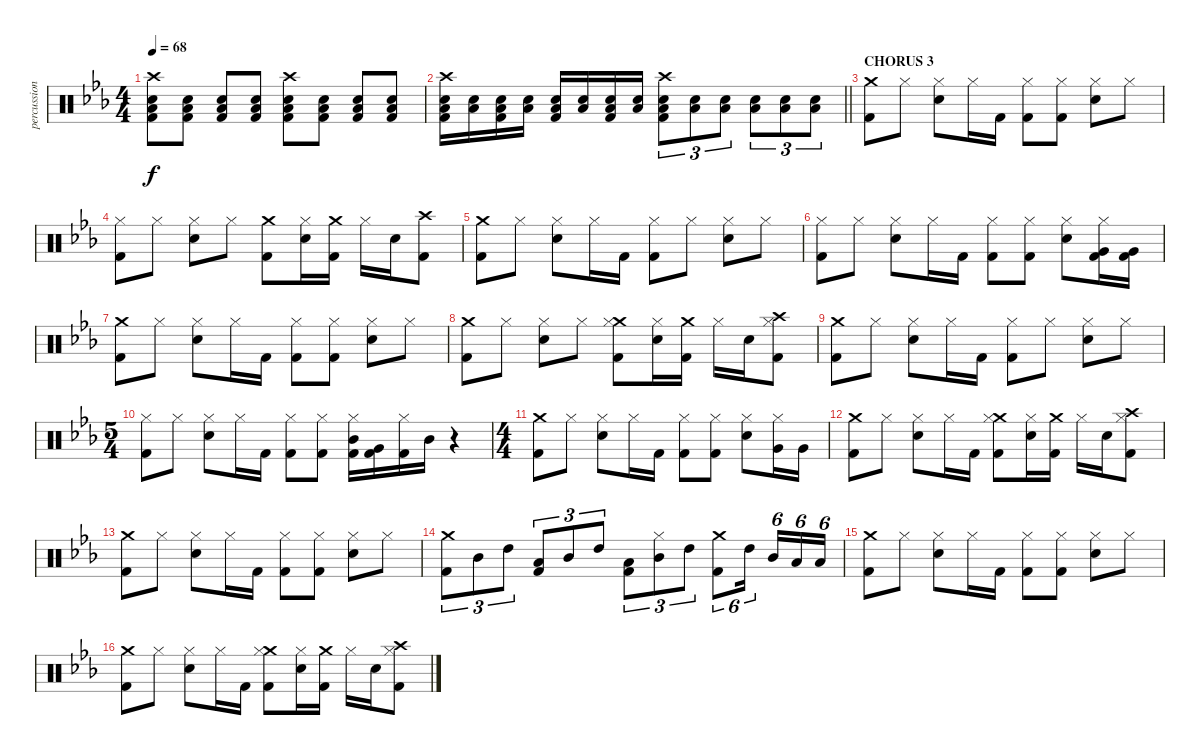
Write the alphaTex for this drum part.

\track ("percussion" "percussion") {instrument percussion}
\staff {score}
\articulation defaults
\ts (4 4)
\tempo 68
\clef neutral
\ks cminor
("Crash high (hit)" "Low Tom (hit)" "Snare (hit) 2" "Kick (hit) 2").8{dy f} ("Low Tom (hit)" "Snare (hit) 2" "Kick (hit) 2").8 ("Low Tom (hit)" "Snare (hit) 2" "Kick (hit) 2").8 ("Low Tom (hit)" "Snare (hit) 2" "Kick (hit) 2").8 ("Crash high (hit)" "Low Tom (hit)" "Snare (hit) 2" "Kick (hit) 2").8 ("Low Tom (hit)" "Snare (hit) 2" "Kick (hit) 2").8 ("Low Tom (hit)" "Snare (hit) 2" "Kick (hit) 2").8 ("Low Tom (hit)" "Snare (hit) 2" "Kick (hit) 2").8 |
\barLineRight lightlight
("Crash high (hit)" "Low Tom (hit)" "Snare (hit) 2" "Kick (hit) 2").16 ("Low Tom (hit)" "Snare (hit) 2").16 ("Low Tom (hit)" "Snare (hit) 2" "Kick (hit) 2").16 ("Low Tom (hit)" "Snare (hit) 2").16 ("Low Tom (hit)" "Snare (hit) 2" "Kick (hit) 2").16 ("Low Tom (hit)" "Snare (hit) 2").16 ("Low Tom (hit)" "Snare (hit) 2" "Kick (hit) 2").16 ("Low Tom (hit)" "Snare (hit) 2").16 ("Crash high (hit)" "Low Tom (hit)" "Snare (hit) 2" "Kick (hit) 2").8{tu (3 2)} ("Low Tom (hit)" "Snare (hit) 2").8{tu (3 2)} ("Low Tom (hit)" "Snare (hit) 2").8{tu (3 2)} ("Low Tom (hit)" "Snare (hit) 2").8{tu (3 2)} ("Low Tom (hit)" "Snare (hit) 2").8{tu (3 2)} ("Low Tom (hit)" "Snare (hit) 2").8{tu (3 2)} |
\section ("" "CHORUS 3")
("Crash medium (hit)" "Kick (hit) 2").8 "Hi-Hat (closed)".8 ("Snare (hit) 2" "Hi-Hat (closed)").8 "Hi-Hat (closed)".16 "Kick (hit) 2".16 ("Hi-Hat (closed)" "Kick (hit) 2").8 ("Hi-Hat (closed)" "Kick (hit) 2").8 ("Snare (hit) 2" "Hi-Hat (closed)").8 "Hi-Hat (closed)".8 |
("Hi-Hat (closed)" "Kick (hit) 2").8 "Hi-Hat (closed)".8 ("Snare (hit) 2" "Hi-Hat (closed)").8 "Hi-Hat (closed)".8 ("Crash medium (hit)" "Kick (hit) 2").8 ("Snare (hit) 2" "Hi-Hat (closed)").16 ("Crash medium (hit)" "Kick (hit) 2").16 "Hi-Hat (closed)".16 "Snare (hit) 2".16 ("Crash high (hit)" "Kick (hit) 2").8 |
("Crash medium (hit)" "Kick (hit) 2").8 "Hi-Hat (closed)".8 ("Snare (hit) 2" "Hi-Hat (closed)").8 "Hi-Hat (closed)".16 "Kick (hit) 2".16 ("Hi-Hat (closed)" "Kick (hit) 2").8 "Hi-Hat (closed)".8 ("Snare (hit) 2" "Hi-Hat (closed)").8 "Hi-Hat (closed)".8 |
("Hi-Hat (closed)" "Kick (hit) 2").8 "Hi-Hat (closed)".8 ("Snare (hit) 2" "Hi-Hat (closed)").8 "Hi-Hat (closed)".16 "Kick (hit) 2".16 ("Hi-Hat (closed)" "Kick (hit) 2").8 ("Hi-Hat (closed)" "Kick (hit) 2").8 ("Snare (hit) 2" "Hi-Hat (closed)").8 ("Very Low Tom (hit)" "Hi-Hat (closed)" "Kick (hit) 2").16 ("Very Low Tom (hit)" "Kick (hit) 2").16 |
("Crash medium (hit)" "Kick (hit) 2").8 "Hi-Hat (closed)".8 ("Snare (hit) 2" "Hi-Hat (closed)").8 "Hi-Hat (closed)".16 "Kick (hit) 2".16 ("Hi-Hat (closed)" "Kick (hit) 2").8 ("Hi-Hat (closed)" "Kick (hit) 2").8 ("Snare (hit) 2" "Hi-Hat (closed)").8 "Hi-Hat (closed)".8 |
("Crash medium (hit)" "Kick (hit) 2").8 "Hi-Hat (closed)".8 ("Snare (hit) 2" "Hi-Hat (closed)").8 "Hi-Hat (closed)".8 ("Crash medium (hit)" "Hi-Hat (closed)" "Kick (hit) 2").8 ("Snare (hit) 2" "Hi-Hat (closed)").16 ("Crash medium (hit)" "Kick (hit) 2").16 "Hi-Hat (closed)".16 "Snare (hit) 2".16 ("Crash high (hit)" "Hi-Hat (closed)" "Kick (hit) 2").8 |
("Crash medium (hit)" "Kick (hit) 2").8 "Hi-Hat (closed)".8 ("Snare (hit) 2" "Hi-Hat (closed)").8 "Hi-Hat (closed)".16 "Kick (hit) 2".16 ("Hi-Hat (closed)" "Kick (hit) 2").8 "Hi-Hat (closed)".8 ("Snare (hit) 2" "Hi-Hat (closed)").8 "Hi-Hat (closed)".8 |
\ts (5 4)
("Hi-Hat (closed)" "Kick (hit) 2").8 "Hi-Hat (closed)".8 ("Snare (hit) 2" "Hi-Hat (closed)").8 "Hi-Hat (closed)".16 "Kick (hit) 2".16 ("Hi-Hat (closed)" "Kick (hit) 2").8 ("Hi-Hat (closed)" "Kick (hit) 2").8 ("Mid Tom (hit)" "Hi-Hat (closed)" "Kick (hit) 2").16 ("Very Low Tom (hit)" "Kick (hit) 2").16 ("Hi-Hat (closed)" "Kick (hit) 2").16 "Mid Tom (hit)".16 r.4 |
\ts (4 4)
("Crash medium (hit)" "Kick (hit) 2").8 "Hi-Hat (closed)".8 ("Snare (hit) 2" "Hi-Hat (closed)").8 "Hi-Hat (closed)".16 "Kick (hit) 2".16 ("Hi-Hat (closed)" "Kick (hit) 2").8 ("Hi-Hat (closed)" "Kick (hit) 2").8 ("Snare (hit) 2" "Hi-Hat (closed)").8 ("Very Low Tom (hit)" "Hi-Hat (closed)").16 "Very Low Tom (hit)".16 |
("Crash medium (hit)" "Kick (hit) 2").8 "Hi-Hat (closed)".8 ("Snare (hit) 2" "Hi-Hat (closed)").8 "Hi-Hat (closed)".16 "Kick (hit) 2".16 ("Crash medium (hit)" "Hi-Hat (closed)" "Kick (hit) 2").8 ("Snare (hit) 2" "Hi-Hat (closed)").16 ("Crash medium (hit)" "Kick (hit) 2").16 "Hi-Hat (closed)".16 "Snare (hit) 2".16 ("Crash high (hit)" "Hi-Hat (closed)" "Kick (hit) 2").8 |
("Crash medium (hit)" "Kick (hit) 2").8 "Hi-Hat (closed)".8 ("Snare (hit) 2" "Hi-Hat (closed)").8 "Hi-Hat (closed)".16 "Kick (hit) 2".16 ("Hi-Hat (closed)" "Kick (hit) 2").8 ("Hi-Hat (closed)" "Kick (hit) 2").8 ("Snare (hit) 2" "Hi-Hat (closed)").8 "Hi-Hat (closed)".8 |
("Crash medium (hit)" "Kick (hit) 2").8{tu (3 2)} "Mid Tom (hit)".8{tu (3 2)} "High Tom (hit)".8{tu (3 2)} ("Low Tom (hit)" "Kick (hit) 2").8{tu (3 2)} "Mid Tom (hit)".8{tu (3 2)} "High Tom (hit)".8{tu (3 2)} ("Low Tom (hit)" "Kick (hit) 2").8{tu (3 2)} ("Mid Tom (hit)" "Hi-Hat (closed)").8{tu (3 2)} "High Tom (hit)".8{tu (3 2)} ("Crash medium (hit)" "Kick (hit) 2").8{tu (6 4)} "High Tom (hit)".16{tu (6 4) beam splitsecondary} "Mid Tom (hit)".16{tu (6 4)} "Low Tom (hit)".16{tu (6 4)} "Low Tom (hit)".16{tu (6 4)} |
("Crash medium (hit)" "Kick (hit) 2").8 "Hi-Hat (closed)".8 ("Snare (hit) 2" "Hi-Hat (closed)").8 "Hi-Hat (closed)".16 "Kick (hit) 2".16 ("Hi-Hat (closed)" "Kick (hit) 2").8 ("Hi-Hat (closed)" "Kick (hit) 2").8 ("Snare (hit) 2" "Hi-Hat (closed)").8 "Hi-Hat (closed)".8 |
("Crash medium (hit)" "Kick (hit) 2").8 "Hi-Hat (closed)".8 ("Snare (hit) 2" "Hi-Hat (closed)").8 "Hi-Hat (closed)".16 "Kick (hit) 2".16 ("Crash medium (hit)" "Hi-Hat (closed)" "Kick (hit) 2").8 ("Snare (hit) 2" "Hi-Hat (closed)").16 ("Crash medium (hit)" "Kick (hit) 2").16 "Hi-Hat (closed)".16 "Snare (hit) 2".16 ("Crash high (hit)" "Hi-Hat (closed)" "Kick (hit) 2").8
